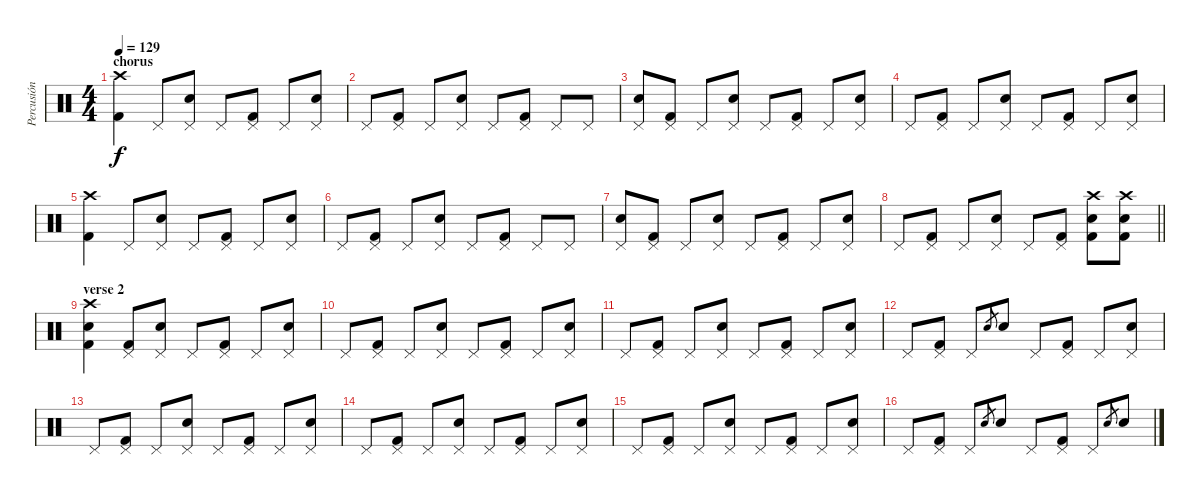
\track ("Percusión" "Percusión") {instrument percussion}
\staff {score}
\articulation defaults
\ts (4 4)
\section ("" "chorus")
\tempo 129
\clef neutral
\ks c
("Crash high (hit)" "Kick (hit) 2").4{dy f} "Pedal Hi-Hat (hit)".8 ("Electric Snare (hit)" "Pedal Hi-Hat (hit)").8 "Pedal Hi-Hat (hit)".8 ("Pedal Hi-Hat (hit)" "Kick (hit) 2").8 "Pedal Hi-Hat (hit)".8 ("Electric Snare (hit)" "Pedal Hi-Hat (hit)").8 |
"Pedal Hi-Hat (hit)".8 ("Pedal Hi-Hat (hit)" "Kick (hit) 2").8 "Pedal Hi-Hat (hit)".8 ("Electric Snare (hit)" "Pedal Hi-Hat (hit)").8 "Pedal Hi-Hat (hit)".8 ("Pedal Hi-Hat (hit)" "Kick (hit) 2").8 "Pedal Hi-Hat (hit)".8 "Pedal Hi-Hat (hit)".8 |
("Electric Snare (hit)" "Pedal Hi-Hat (hit)").8 ("Pedal Hi-Hat (hit)" "Kick (hit) 2").8 "Pedal Hi-Hat (hit)".8 ("Electric Snare (hit)" "Pedal Hi-Hat (hit)").8 "Pedal Hi-Hat (hit)".8 ("Pedal Hi-Hat (hit)" "Kick (hit) 2").8 "Pedal Hi-Hat (hit)".8 ("Electric Snare (hit)" "Pedal Hi-Hat (hit)").8 |
"Pedal Hi-Hat (hit)".8 ("Pedal Hi-Hat (hit)" "Kick (hit) 2").8 "Pedal Hi-Hat (hit)".8 ("Electric Snare (hit)" "Pedal Hi-Hat (hit)").8 "Pedal Hi-Hat (hit)".8 ("Pedal Hi-Hat (hit)" "Kick (hit) 2").8 "Pedal Hi-Hat (hit)".8 ("Electric Snare (hit)" "Pedal Hi-Hat (hit)").8 |
("Crash high (hit)" "Kick (hit) 2").4 "Pedal Hi-Hat (hit)".8 ("Electric Snare (hit)" "Pedal Hi-Hat (hit)").8 "Pedal Hi-Hat (hit)".8 ("Pedal Hi-Hat (hit)" "Kick (hit) 2").8 "Pedal Hi-Hat (hit)".8 ("Electric Snare (hit)" "Pedal Hi-Hat (hit)").8 |
"Pedal Hi-Hat (hit)".8 ("Pedal Hi-Hat (hit)" "Kick (hit) 2").8 "Pedal Hi-Hat (hit)".8 ("Electric Snare (hit)" "Pedal Hi-Hat (hit)").8 "Pedal Hi-Hat (hit)".8 ("Pedal Hi-Hat (hit)" "Kick (hit) 2").8 "Pedal Hi-Hat (hit)".8 "Pedal Hi-Hat (hit)".8 |
("Electric Snare (hit)" "Pedal Hi-Hat (hit)").8 ("Pedal Hi-Hat (hit)" "Kick (hit) 2").8 "Pedal Hi-Hat (hit)".8 ("Electric Snare (hit)" "Pedal Hi-Hat (hit)").8 "Pedal Hi-Hat (hit)".8 ("Pedal Hi-Hat (hit)" "Kick (hit) 2").8 "Pedal Hi-Hat (hit)".8 ("Electric Snare (hit)" "Pedal Hi-Hat (hit)").8 |
\barLineRight lightlight "Pedal Hi-Hat (hit)".8
("Pedal Hi-Hat (hit)" "Kick (hit) 2").8 "Pedal Hi-Hat (hit)".8 ("Electric Snare (hit)" "Pedal Hi-Hat (hit)").8 "Pedal Hi-Hat (hit)".8 ("Pedal Hi-Hat (hit)" "Kick (hit) 2").8 ("Crash high (hit)" "Electric Snare (hit)" "Kick (hit) 2").8 ("Crash high (hit)" "Electric Snare (hit)" "Kick (hit) 2").8 |
\section ("" "verse 2")
("Crash high (hit)" "Electric Snare (hit)" "Kick (hit) 2").4 ("Pedal Hi-Hat (hit)" "Kick (hit) 2").8 ("Electric Snare (hit)" "Pedal Hi-Hat (hit)").8 "Pedal Hi-Hat (hit)".8 ("Pedal Hi-Hat (hit)" "Kick (hit) 2").8 "Pedal Hi-Hat (hit)".8 ("Electric Snare (hit)" "Pedal Hi-Hat (hit)").8 |
"Pedal Hi-Hat (hit)".8 ("Pedal Hi-Hat (hit)" "Kick (hit) 2").8 "Pedal Hi-Hat (hit)".8 ("Electric Snare (hit)" "Pedal Hi-Hat (hit)").8 "Pedal Hi-Hat (hit)".8 ("Pedal Hi-Hat (hit)" "Kick (hit) 2").8 "Pedal Hi-Hat (hit)".8 ("Electric Snare (hit)" "Pedal Hi-Hat (hit)").8 |
"Pedal Hi-Hat (hit)".8 ("Pedal Hi-Hat (hit)" "Kick (hit) 2").8 "Pedal Hi-Hat (hit)".8 ("Electric Snare (hit)" "Pedal Hi-Hat (hit)").8 "Pedal Hi-Hat (hit)".8 ("Pedal Hi-Hat (hit)" "Kick (hit) 2").8 "Pedal Hi-Hat (hit)".8 ("Electric Snare (hit)" "Pedal Hi-Hat (hit)").8 |
"Pedal Hi-Hat (hit)".8 ("Pedal Hi-Hat (hit)" "Kick (hit) 2").8 "Pedal Hi-Hat (hit)".8 "Snare (hit) 2".8{gr} "Electric Snare (hit)".8 "Pedal Hi-Hat (hit)".8 ("Pedal Hi-Hat (hit)" "Kick (hit) 2").8 "Pedal Hi-Hat (hit)".8 ("Electric Snare (hit)" "Pedal Hi-Hat (hit)").8 |
"Pedal Hi-Hat (hit)".8 ("Pedal Hi-Hat (hit)" "Kick (hit) 2").8 "Pedal Hi-Hat (hit)".8 ("Electric Snare (hit)" "Pedal Hi-Hat (hit)").8 "Pedal Hi-Hat (hit)".8 ("Pedal Hi-Hat (hit)" "Kick (hit) 2").8 "Pedal Hi-Hat (hit)".8 ("Electric Snare (hit)" "Pedal Hi-Hat (hit)").8 |
"Pedal Hi-Hat (hit)".8 ("Pedal Hi-Hat (hit)" "Kick (hit) 2").8 "Pedal Hi-Hat (hit)".8 ("Electric Snare (hit)" "Pedal Hi-Hat (hit)").8 "Pedal Hi-Hat (hit)".8 ("Pedal Hi-Hat (hit)" "Kick (hit) 2").8 "Pedal Hi-Hat (hit)".8 ("Electric Snare (hit)" "Pedal Hi-Hat (hit)").8 |
"Pedal Hi-Hat (hit)".8 ("Pedal Hi-Hat (hit)" "Kick (hit) 2").8 "Pedal Hi-Hat (hit)".8 ("Electric Snare (hit)" "Pedal Hi-Hat (hit)").8 "Pedal Hi-Hat (hit)".8 ("Pedal Hi-Hat (hit)" "Kick (hit) 2").8 "Pedal Hi-Hat (hit)".8 ("Electric Snare (hit)" "Pedal Hi-Hat (hit)").8 |
"Pedal Hi-Hat (hit)".8 ("Pedal Hi-Hat (hit)" "Kick (hit) 2").8 "Pedal Hi-Hat (hit)".8 "Snare (hit) 2".8{gr} "Electric Snare (hit)".8 "Pedal Hi-Hat (hit)".8 ("Pedal Hi-Hat (hit)" "Kick (hit) 2").8 "Pedal Hi-Hat (hit)".8 "Snare (hit) 2".8{gr} "Electric Snare (hit)".8
